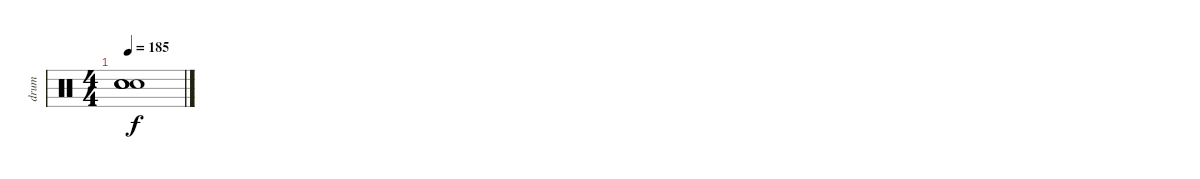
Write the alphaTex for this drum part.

\track ("drum" "drum") {instrument percussion}
\staff {score}
\articulation defaults
\ts (4 4)
\tempo 185
\clef neutral
\ks c
("Snare (hit)"{t} "Snare (hit)"{t} "Snare (hit)"{t} "Snare (hit)").1{dy f}
